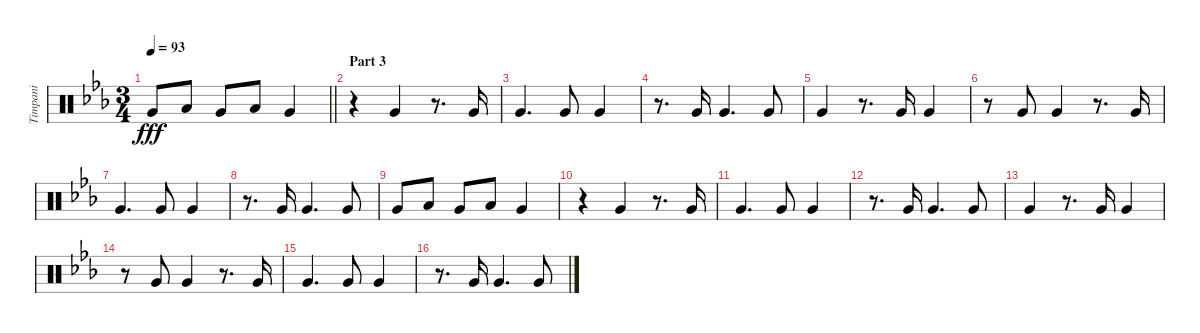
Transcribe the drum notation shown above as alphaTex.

\track ("Timpani" "Timpani") {instrument percussion}
\staff {score}
\articulation defaults
\ts (3 4)
\tempo 93
\clef neutral
\barLineRight lightlight
\ks cminor "Very Low Tom (hit)".8{dy fff} "Low Floor Tom (hit)".8 "Very Low Tom (hit)".8 "Low Floor Tom (hit)".8 "Very Low Tom (hit)".4
|
\section ("" "Part 3")
r.4 "Very Low Tom (hit)".4 r.8{d} "Very Low Tom (hit)".16 |
"Very Low Tom (hit)".4{d} "Very Low Tom (hit)".8 "Very Low Tom (hit)".4 |
r.8{d} "Very Low Tom (hit)".16 "Very Low Tom (hit)".4{d} "Very Low Tom (hit)".8 |
"Very Low Tom (hit)".4 r.8{d} "Very Low Tom (hit)".16 "Very Low Tom (hit)".4 |
r.8 "Very Low Tom (hit)".8 "Very Low Tom (hit)".4 r.8{d} "Very Low Tom (hit)".16 |
"Very Low Tom (hit)".4{d} "Very Low Tom (hit)".8 "Very Low Tom (hit)".4 |
r.8{d} "Very Low Tom (hit)".16 "Very Low Tom (hit)".4{d} "Very Low Tom (hit)".8 |
"Very Low Tom (hit)".8 "Low Floor Tom (hit)".8 "Very Low Tom (hit)".8 "Low Floor Tom (hit)".8 "Very Low Tom (hit)".4 |
r.4 "Very Low Tom (hit)".4 r.8{d} "Very Low Tom (hit)".16 |
"Very Low Tom (hit)".4{d} "Very Low Tom (hit)".8 "Very Low Tom (hit)".4 |
r.8{d} "Very Low Tom (hit)".16 "Very Low Tom (hit)".4{d} "Very Low Tom (hit)".8 |
"Very Low Tom (hit)".4 r.8{d} "Very Low Tom (hit)".16 "Very Low Tom (hit)".4 |
r.8 "Very Low Tom (hit)".8 "Very Low Tom (hit)".4 r.8{d} "Very Low Tom (hit)".16 |
"Very Low Tom (hit)".4{d} "Very Low Tom (hit)".8 "Very Low Tom (hit)".4 |
r.8{d} "Very Low Tom (hit)".16 "Very Low Tom (hit)".4{d} "Very Low Tom (hit)".8
